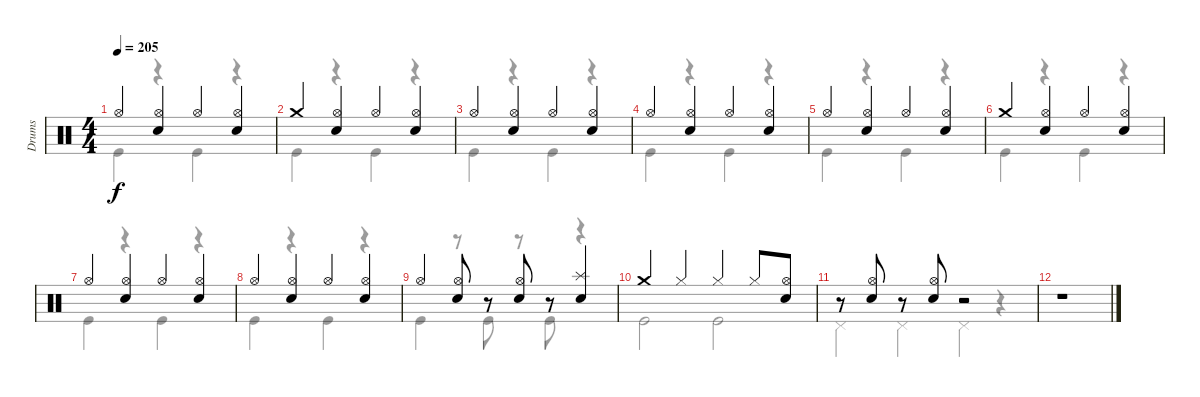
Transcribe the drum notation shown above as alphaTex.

\track ("Drums" "Drums") {instrument percussion}
\staff {score}
\articulation defaults
\voice
\ts (4 4)
\tempo 205
\clef neutral
\ks c "Hi-Hat (open)".4{dy f}
("Hi-Hat (open)" "Snare (hit) 2").4 "Hi-Hat (open)".4 ("Hi-Hat (open)" "Snare (hit) 2").4 |
"Crash medium (hit)".4 ("Hi-Hat (open)" "Snare (hit) 2").4 "Hi-Hat (open)".4 ("Hi-Hat (open)" "Snare (hit) 2").4 |
"Hi-Hat (open)".4 ("Hi-Hat (open)" "Snare (hit) 2").4 "Hi-Hat (open)".4 ("Hi-Hat (open)" "Snare (hit) 2").4 |
"Hi-Hat (open)".4 ("Hi-Hat (open)" "Snare (hit) 2").4 "Hi-Hat (open)".4 ("Hi-Hat (open)" "Snare (hit) 2").4 |
"Hi-Hat (open)".4 ("Hi-Hat (open)" "Snare (hit) 2").4 "Hi-Hat (open)".4 ("Hi-Hat (open)" "Snare (hit) 2").4 |
"Crash medium (hit)".4 ("Hi-Hat (open)" "Snare (hit) 2").4 "Hi-Hat (open)".4 ("Hi-Hat (open)" "Snare (hit) 2").4 |
"Hi-Hat (open)".4 ("Hi-Hat (open)" "Snare (hit) 2").4 "Hi-Hat (open)".4 ("Hi-Hat (open)" "Snare (hit) 2").4 |
"Hi-Hat (open)".4 ("Hi-Hat (open)" "Snare (hit) 2").4 "Hi-Hat (open)".4 ("Hi-Hat (open)" "Snare (hit) 2").4 |
"Hi-Hat (open)".4 ("Hi-Hat (open)" "Snare (hit) 2").8 r.8 ("Hi-Hat (open)" "Snare (hit) 2").8 r.8 ("Splash (hit)" "Snare (hit) 2").4 |
"Crash medium (hit)".4 "Hi-Hat (closed)".4 "Hi-Hat (closed)".4 "Hi-Hat (closed)".8 ("Hi-Hat (open)" "Snare (hit) 2").8 |
r.8 ("Hi-Hat (open)" "Snare (hit) 2").8 r.8 ("Hi-Hat (open)" "Snare (hit) 2").8 r.2 |
r.1
\voice
\clef neutral
\ottava regular
\simile none
\ks c "Kick (hit)".4{dy f}
r.4 "Kick (hit)".4 r.4 |
"Kick (hit)".4 r.4 "Kick (hit)".4 r.4 |
"Kick (hit)".4 r.4 "Kick (hit)".4 r.4 |
"Kick (hit)".4 r.4 "Kick (hit)".4 r.4 |
"Kick (hit)".4 r.4 "Kick (hit)".4 r.4 |
"Kick (hit)".4 r.4 "Kick (hit)".4 r.4 |
"Kick (hit)".4 r.4 "Kick (hit)".4 r.4 |
"Kick (hit)".4 r.4 "Kick (hit)".4 r.4 |
"Kick (hit)".4 r.8 "Kick (hit)".8 r.8 "Kick (hit)".8 r.4 |
"Kick (hit)".2 "Kick (hit)".2 |
"Pedal Hi-Hat (hit)".4 "Pedal Hi-Hat (hit)".4 "Pedal Hi-Hat (hit)".4 r.4 |
